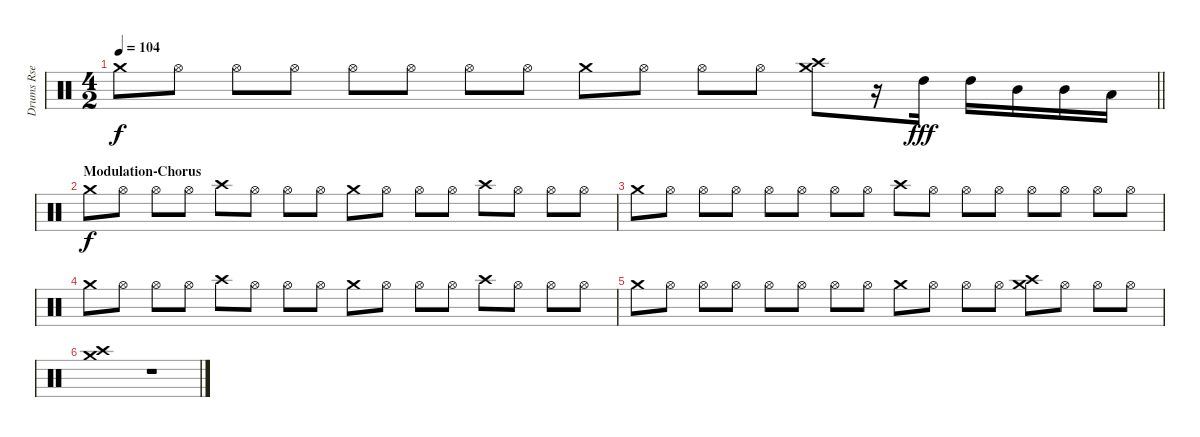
\track ("Drums Rse" "Drums Rse") {instrument percussion}
\staff {score}
\articulation defaults
\ts (4 2)
\tempo 104
\clef neutral
\barLineRight lightlight
\ks c "Crash medium (hit)".8{dy f} "Hi-Hat (open)".8 "Hi-Hat (open)".8 "Hi-Hat (open)".8 "Hi-Hat (open)".8 "Hi-Hat (open)".8 "Hi-Hat (open)".8 "Hi-Hat (open)".8 "Crash medium (hit)".8 "Hi-Hat (open)".8 "Hi-Hat (open)".8 "Hi-Hat (open)".8
("Crash medium (hit)" "Crash high (hit)").8 r.16 "High Tom (hit)".16{dy fff} "High Tom (hit)".16 "Mid Tom (hit)".16 "Mid Tom (hit)".16 "Low Tom (hit)".16 |
\section ("" "Modulation-Chorus")
"Crash medium (hit)".8{dy f} "Hi-Hat (open)".8 "Hi-Hat (open)".8 "Hi-Hat (open)".8 "Crash high (hit)".8 "Hi-Hat (open)".8 "Hi-Hat (open)".8 "Hi-Hat (open)".8 "Crash medium (hit)".8 "Hi-Hat (open)".8 "Hi-Hat (open)".8 "Hi-Hat (open)".8 "Crash high (hit)".8 "Hi-Hat (open)".8 "Hi-Hat (open)".8 "Hi-Hat (open)".8 |
"Crash medium (hit)".8 "Hi-Hat (open)".8 "Hi-Hat (open)".8 "Hi-Hat (open)".8 "Hi-Hat (open)".8 "Hi-Hat (open)".8 "Hi-Hat (open)".8 "Hi-Hat (open)".8 "Crash high (hit)".8 "Hi-Hat (open)".8 "Hi-Hat (open)".8 "Hi-Hat (open)".8 "Hi-Hat (open)".8 "Hi-Hat (open)".8 "Hi-Hat (open)".8 "Hi-Hat (open)".8 |
"Crash medium (hit)".8 "Hi-Hat (open)".8 "Hi-Hat (open)".8 "Hi-Hat (open)".8 "Crash high (hit)".8 "Hi-Hat (open)".8 "Hi-Hat (open)".8 "Hi-Hat (open)".8 "Crash medium (hit)".8 "Hi-Hat (open)".8 "Hi-Hat (open)".8 "Hi-Hat (open)".8 "Crash high (hit)".8 "Hi-Hat (open)".8 "Hi-Hat (open)".8 "Hi-Hat (open)".8 |
"Crash medium (hit)".8 "Hi-Hat (open)".8 "Hi-Hat (open)".8 "Hi-Hat (open)".8 "Hi-Hat (open)".8 "Hi-Hat (open)".8 "Hi-Hat (open)".8 "Hi-Hat (open)".8 "Crash medium (hit)".8 "Hi-Hat (open)".8 "Hi-Hat (open)".8 "Hi-Hat (open)".8 ("Crash medium (hit)" "Crash high (hit)").8 "Hi-Hat (open)".8 "Hi-Hat (open)".8 "Hi-Hat (open)".8 |
("Crash medium (hit)" "Crash high (hit)").1 r.1
